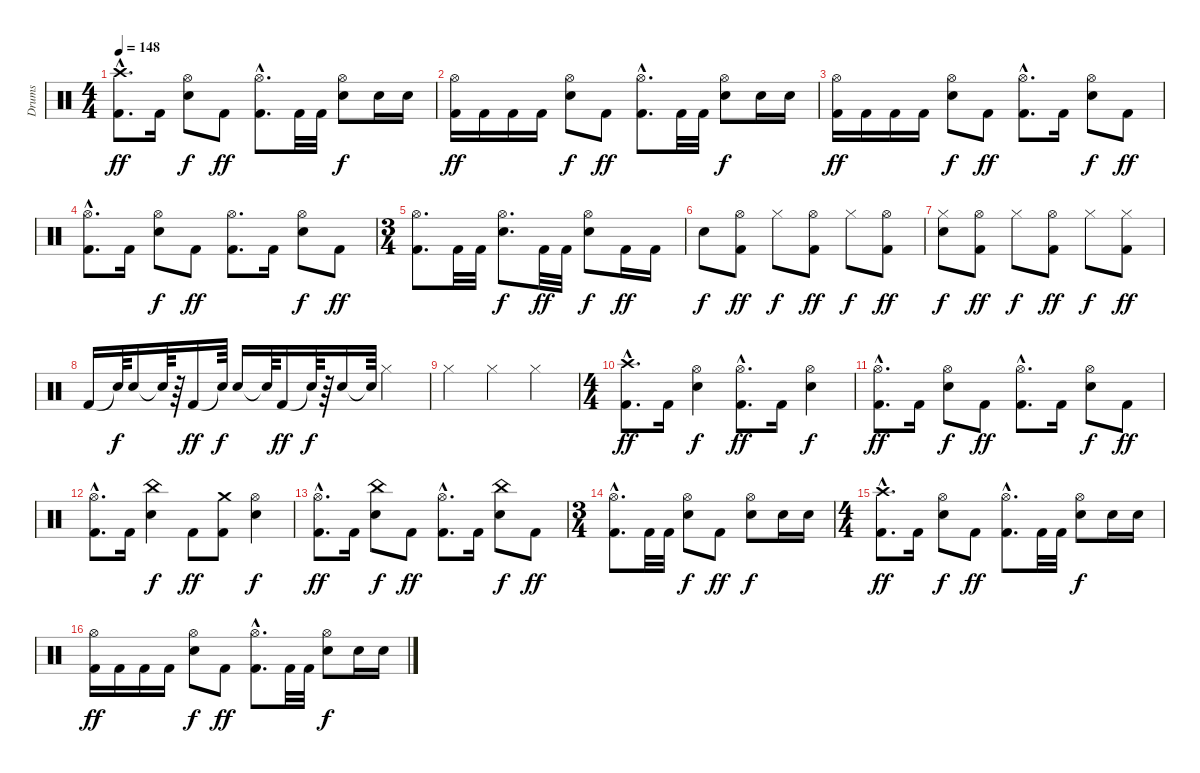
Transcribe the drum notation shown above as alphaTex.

\track ("Drums" "Drums") {instrument percussion}
\staff {score}
\articulation defaults
\ts (4 4)
\tempo 148
\clef neutral
\ks c
("Crash high (hit)" "Kick (hit) 2"{hac}).8{d dy ff} "Kick (hit) 2".16 ("Hi-Hat (open)" "Electric Snare (hit)").8{dy f} "Kick (hit) 2".8{dy ff} ("Hi-Hat (open)" "Kick (hit) 2"{hac}).8{d} "Kick (hit) 2".32 "Kick (hit) 2".32 ("Hi-Hat (open)" "Electric Snare (hit)").8{dy f} "Electric Snare (hit)".16 "Electric Snare (hit)".16 |
("Hi-Hat (open)" "Kick (hit) 2").16{dy ff} "Kick (hit) 2".16 "Kick (hit) 2".16 "Kick (hit) 2".16 ("Hi-Hat (open)" "Electric Snare (hit)").8{dy f} "Kick (hit) 2".8{dy ff} ("Hi-Hat (open)" "Kick (hit) 2"{hac}).8{d} "Kick (hit) 2".32 "Kick (hit) 2".32 ("Hi-Hat (open)" "Electric Snare (hit)").8{dy f} "Electric Snare (hit)".16 "Electric Snare (hit)".16 |
("Hi-Hat (open)" "Kick (hit) 2").16{dy ff} "Kick (hit) 2".16 "Kick (hit) 2".16 "Kick (hit) 2".16 ("Hi-Hat (open)" "Electric Snare (hit)").8{dy f} "Kick (hit) 2".8{dy ff} ("Hi-Hat (open)" "Kick (hit) 2"{hac}).8{d} "Kick (hit) 2".16 ("Hi-Hat (open)" "Electric Snare (hit)").8{dy f} "Kick (hit) 2".8{dy ff} |
("Hi-Hat (open)" "Kick (hit) 2"{hac}).8{d} "Kick (hit) 2".16 ("Electric Snare (hit)" "Hi-Hat (open)").8{dy f} "Kick (hit) 2".8{dy ff} ("Hi-Hat (open)" "Kick (hit) 2").8{d} "Kick (hit) 2".16 ("Hi-Hat (open)" "Electric Snare (hit)").8{dy f} "Kick (hit) 2".8{dy ff} |
\ts (3 4)
("Hi-Hat (open)" "Kick (hit) 2").8{d} "Kick (hit) 2".32 "Kick (hit) 2".32 ("Electric Snare (hit)" "Hi-Hat (open)").8{d dy f} "Kick (hit) 2".32{dy ff} "Kick (hit) 2".32 ("Electric Snare (hit)" "Hi-Hat (open)").8{dy f} "Kick (hit) 2".16{dy ff} "Kick (hit) 2".16 |
"Electric Snare (hit)".8{dy f} ("Hi-Hat (open)" "Kick (hit) 2").8{dy ff} "Hi-Hat (closed)".8{dy f} ("Hi-Hat (open)" "Kick (hit) 2").8{dy ff} "Hi-Hat (closed)".8{dy f} ("Hi-Hat (open)" "Kick (hit) 2").8{dy ff} |
("Hi-Hat (closed)" "Electric Snare (hit)").8{dy f} ("Hi-Hat (open)" "Kick (hit) 2").8{dy ff} "Hi-Hat (closed)".8{dy f} ("Hi-Hat (open)" "Kick (hit) 2").8{dy ff} "Hi-Hat (closed)".8{dy f} ("Hi-Hat (closed)" "Kick (hit) 2").8{dy ff} |
"Kick (hit) 2".16 "Snare (hit)"{t}.64{dy f} "Electric Snare (hit)".16 "Snare (hit)"{t}.64 r.64 "Kick (hit) 2".16{dy ff} "Snare (hit)"{t}.64{dy f} "Electric Snare (hit)".16 "Snare (hit)"{t}.64 "Kick (hit) 2".16{dy ff} "Snare (hit)"{t}.64{dy f} r.64 "Electric Snare (hit)".16 "Snare (hit)"{t}.64 "Hi-Hat (closed)".4 |
"Hi-Hat (closed)".4 "Hi-Hat (closed)".4 "Hi-Hat (closed)".4 |
\ts (4 4)
("Crash high (hit)" "Kick (hit) 2"{hac}).8{d dy ff} "Kick (hit) 2".16 ("Electric Snare (hit)" "Hi-Hat (open)").4{dy f} ("Hi-Hat (open)" "Kick (hit) 2"{hac}).8{d dy ff} "Kick (hit) 2".16 ("Hi-Hat (open)" "Electric Snare (hit)").4{dy f} |
("Hi-Hat (open)" "Kick (hit) 2"{hac}).8{d dy ff} "Kick (hit) 2".16 ("Hi-Hat (open)" "Electric Snare (hit)").8{dy f} "Kick (hit) 2".8{dy ff} ("Hi-Hat (open)" "Kick (hit) 2"{hac}).8{d} "Kick (hit) 2".16 ("Hi-Hat (open)" "Electric Snare (hit)").8{dy f} "Kick (hit) 2".8{dy ff} |
("Hi-Hat (open)" "Kick (hit) 2"{hac}).8{d} "Kick (hit) 2".16 ("Electric Snare (hit)" "China (hit)").4{dy f} "Kick (hit) 2".8{dy ff} ("Crash medium (hit)" "Kick (hit) 2").8 ("Hi-Hat (open)" "Electric Snare (hit)").4{dy f} |
("Hi-Hat (open)" "Kick (hit) 2"{hac}).8{d dy ff} "Kick (hit) 2".16 ("Electric Snare (hit)" "China (hit)").8{dy f} "Kick (hit) 2".8{dy ff} ("Hi-Hat (open)" "Kick (hit) 2"{hac}).8{d} "Kick (hit) 2".16 ("Electric Snare (hit)" "China (hit)").8{dy f} "Kick (hit) 2".8{dy ff} |
\ts (3 4)
("Hi-Hat (open)" "Kick (hit) 2"{hac}).8{d} "Kick (hit) 2".32 "Kick (hit) 2".32 ("Electric Snare (hit)" "Hi-Hat (open)").8{dy f} "Kick (hit) 2".8{dy ff} ("Hi-Hat (open)" "Electric Snare (hit)").8{dy f} "Electric Snare (hit)".16 "Electric Snare (hit)".16 |
\ts (4 4)
("Crash high (hit)" "Kick (hit) 2"{hac}).8{d dy ff} "Kick (hit) 2".16 ("Hi-Hat (open)" "Electric Snare (hit)").8{dy f} "Kick (hit) 2".8{dy ff} ("Hi-Hat (open)" "Kick (hit) 2"{hac}).8{d} "Kick (hit) 2".32 "Kick (hit) 2".32 ("Hi-Hat (open)" "Electric Snare (hit)").8{dy f} "Electric Snare (hit)".16 "Electric Snare (hit)".16 |
("Hi-Hat (open)" "Kick (hit) 2").16{dy ff} "Kick (hit) 2".16 "Kick (hit) 2".16 "Kick (hit) 2".16 ("Hi-Hat (open)" "Electric Snare (hit)").8{dy f} "Kick (hit) 2".8{dy ff} ("Hi-Hat (open)" "Kick (hit) 2"{hac}).8{d} "Kick (hit) 2".32 "Kick (hit) 2".32 ("Hi-Hat (open)" "Electric Snare (hit)").8{dy f} "Electric Snare (hit)".16 "Electric Snare (hit)".16
